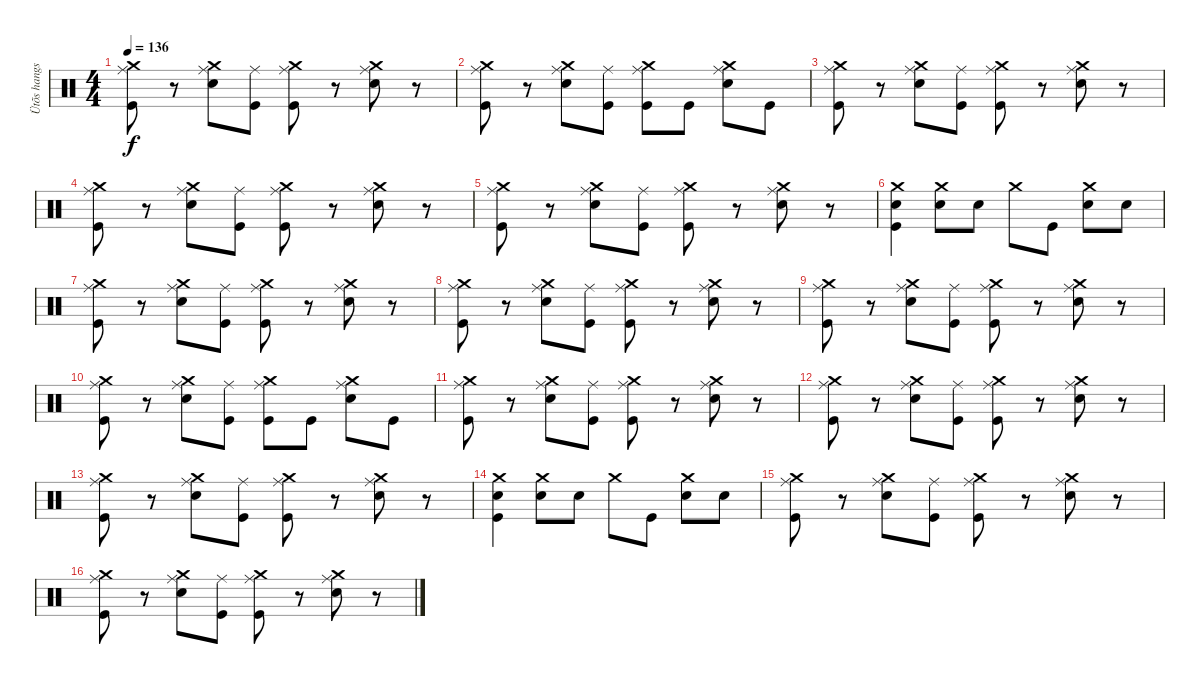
\track ("Ütõs hangszer" "Ütõs hangs") {instrument percussion}
\staff {score}
\articulation defaults
\ts (4 4)
\tempo 136
\clef neutral
\ks c
("Crash medium (hit)" "Ride (middle)" "Kick (hit)").8{dy f} r.8 ("Crash medium (hit)" "Ride (middle)" "Electric Snare (hit)").8 ("Ride (middle)" "Kick (hit)").8 ("Crash medium (hit)" "Ride (middle)" "Kick (hit)").8 r.8 ("Crash medium (hit)" "Ride (middle)" "Electric Snare (hit)").8 r.8 |
("Crash medium (hit)" "Ride (middle)" "Kick (hit)").8 r.8 ("Crash medium (hit)" "Ride (middle)" "Electric Snare (hit)").8 ("Ride (middle)" "Kick (hit)").8 ("Crash medium (hit)" "Ride (middle)" "Kick (hit)").8 "Kick (hit)".8 ("Crash medium (hit)" "Ride (middle)" "Electric Snare (hit)").8 "Kick (hit)".8 |
("Crash medium (hit)" "Ride (middle)" "Kick (hit)").8 r.8 ("Crash medium (hit)" "Ride (middle)" "Electric Snare (hit)").8 ("Ride (middle)" "Kick (hit)").8 ("Crash medium (hit)" "Ride (middle)" "Kick (hit)").8 r.8 ("Crash medium (hit)" "Ride (middle)" "Electric Snare (hit)").8 r.8 |
("Crash medium (hit)" "Ride (middle)" "Kick (hit)").8 r.8 ("Crash medium (hit)" "Ride (middle)" "Electric Snare (hit)").8 ("Ride (middle)" "Kick (hit)").8 ("Crash medium (hit)" "Ride (middle)" "Kick (hit)").8 r.8 ("Crash medium (hit)" "Ride (middle)" "Electric Snare (hit)").8 r.8 |
("Crash medium (hit)" "Ride (middle)" "Kick (hit)").8 r.8 ("Crash medium (hit)" "Ride (middle)" "Electric Snare (hit)").8 ("Ride (middle)" "Kick (hit)").8 ("Crash medium (hit)" "Ride (middle)" "Kick (hit)").8 r.8 ("Crash medium (hit)" "Ride (middle)" "Electric Snare (hit)").8 r.8 |
("Crash medium (hit)" "Electric Snare (hit)" "Kick (hit)").4 ("Crash medium (hit)" "Electric Snare (hit)").8 "Electric Snare (hit)".8 "Crash medium (hit)".8 "Kick (hit)".8 ("Crash medium (hit)" "Electric Snare (hit)").8 "Electric Snare (hit)".8 |
("Crash medium (hit)" "Ride (middle)" "Kick (hit)").8 r.8 ("Crash medium (hit)" "Ride (middle)" "Electric Snare (hit)").8 ("Ride (middle)" "Kick (hit)").8 ("Crash medium (hit)" "Ride (middle)" "Kick (hit)").8 r.8 ("Crash medium (hit)" "Ride (middle)" "Electric Snare (hit)").8 r.8 |
("Crash medium (hit)" "Ride (middle)" "Kick (hit)").8 r.8 ("Crash medium (hit)" "Ride (middle)" "Electric Snare (hit)").8 ("Ride (middle)" "Kick (hit)").8 ("Crash medium (hit)" "Ride (middle)" "Kick (hit)").8 r.8 ("Crash medium (hit)" "Ride (middle)" "Electric Snare (hit)").8 r.8 |
("Crash medium (hit)" "Ride (middle)" "Kick (hit)").8 r.8 ("Crash medium (hit)" "Ride (middle)" "Electric Snare (hit)").8 ("Ride (middle)" "Kick (hit)").8 ("Crash medium (hit)" "Ride (middle)" "Kick (hit)").8 r.8 ("Crash medium (hit)" "Ride (middle)" "Electric Snare (hit)").8 r.8 |
("Crash medium (hit)" "Ride (middle)" "Kick (hit)").8 r.8 ("Crash medium (hit)" "Ride (middle)" "Electric Snare (hit)").8 ("Ride (middle)" "Kick (hit)").8 ("Crash medium (hit)" "Ride (middle)" "Kick (hit)").8 "Kick (hit)".8 ("Crash medium (hit)" "Ride (middle)" "Electric Snare (hit)").8 "Kick (hit)".8 |
("Crash medium (hit)" "Ride (middle)" "Kick (hit)").8 r.8 ("Crash medium (hit)" "Ride (middle)" "Electric Snare (hit)").8 ("Ride (middle)" "Kick (hit)").8 ("Crash medium (hit)" "Ride (middle)" "Kick (hit)").8 r.8 ("Crash medium (hit)" "Ride (middle)" "Electric Snare (hit)").8 r.8 |
("Crash medium (hit)" "Ride (middle)" "Kick (hit)").8 r.8 ("Crash medium (hit)" "Ride (middle)" "Electric Snare (hit)").8 ("Ride (middle)" "Kick (hit)").8 ("Crash medium (hit)" "Ride (middle)" "Kick (hit)").8 r.8 ("Crash medium (hit)" "Ride (middle)" "Electric Snare (hit)").8 r.8 |
("Crash medium (hit)" "Ride (middle)" "Kick (hit)").8 r.8 ("Crash medium (hit)" "Ride (middle)" "Electric Snare (hit)").8 ("Ride (middle)" "Kick (hit)").8 ("Crash medium (hit)" "Ride (middle)" "Kick (hit)").8 r.8 ("Crash medium (hit)" "Ride (middle)" "Electric Snare (hit)").8 r.8 |
("Crash medium (hit)" "Electric Snare (hit)" "Kick (hit)").4 ("Crash medium (hit)" "Electric Snare (hit)").8 "Electric Snare (hit)".8 "Crash medium (hit)".8 "Kick (hit)".8 ("Crash medium (hit)" "Electric Snare (hit)").8 "Electric Snare (hit)".8 |
("Crash medium (hit)" "Ride (middle)" "Kick (hit)").8 r.8 ("Crash medium (hit)" "Ride (middle)" "Electric Snare (hit)").8 ("Ride (middle)" "Kick (hit)").8 ("Crash medium (hit)" "Ride (middle)" "Kick (hit)").8 r.8 ("Crash medium (hit)" "Ride (middle)" "Electric Snare (hit)").8 r.8 |
("Crash medium (hit)" "Ride (middle)" "Kick (hit)").8 r.8 ("Crash medium (hit)" "Ride (middle)" "Electric Snare (hit)").8 ("Ride (middle)" "Kick (hit)").8 ("Crash medium (hit)" "Ride (middle)" "Kick (hit)").8 r.8 ("Crash medium (hit)" "Ride (middle)" "Electric Snare (hit)").8 r.8
